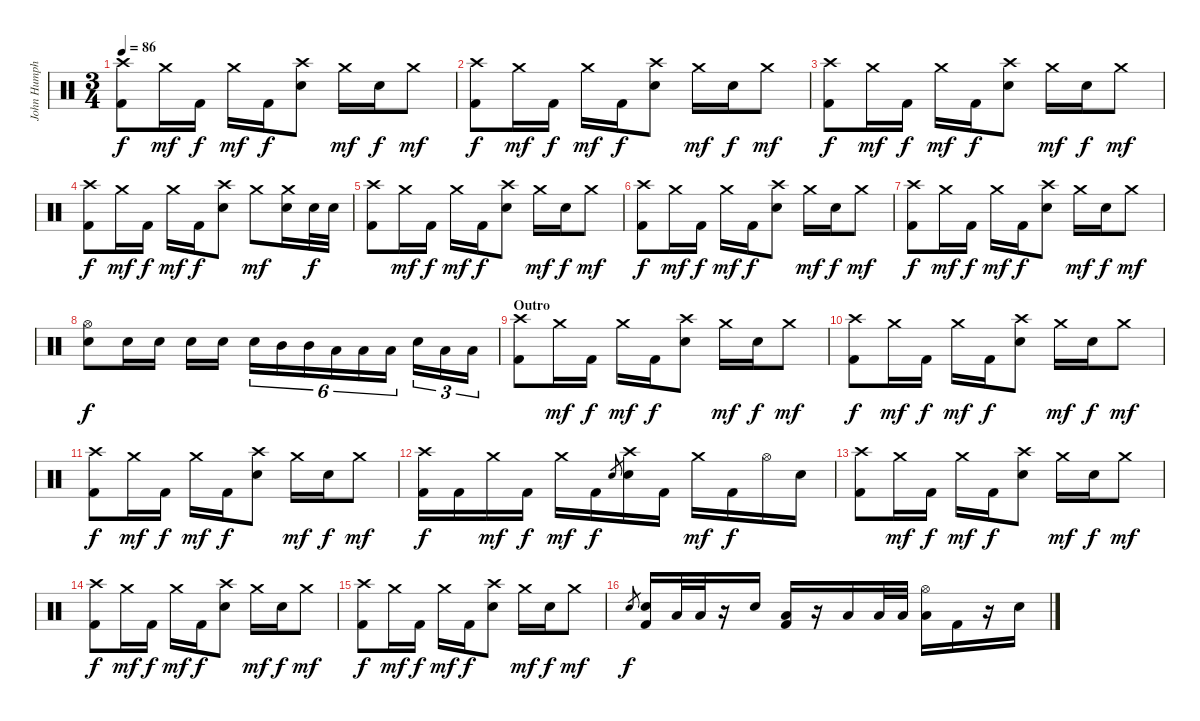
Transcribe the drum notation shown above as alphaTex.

\track ("John Humphrey" "John Humph") {instrument percussion}
\staff {score}
\articulation defaults
\ts (3 4)
\tempo 86
\clef neutral
\ks c
("Crash high (hit)" "Kick (hit) 2").8{dy f} "Crash medium (hit)".16{dy mf} "Kick (hit) 2".16{dy f} "Crash medium (hit)".16{dy mf} "Kick (hit) 2".16{dy f} ("Crash high (hit)" "Snare (hit) 2").8 "Crash medium (hit)".16{dy mf} "Snare (hit) 2".16{dy f} "Crash medium (hit)".8{dy mf} |
("Crash high (hit)" "Kick (hit) 2").8{dy f} "Crash medium (hit)".16{dy mf} "Kick (hit) 2".16{dy f} "Crash medium (hit)".16{dy mf} "Kick (hit) 2".16{dy f} ("Crash high (hit)" "Snare (hit) 2").8 "Crash medium (hit)".16{dy mf} "Snare (hit) 2".16{dy f} "Crash medium (hit)".8{dy mf} |
("Crash high (hit)" "Kick (hit) 2").8{dy f} "Crash medium (hit)".16{dy mf} "Kick (hit) 2".16{dy f} "Crash medium (hit)".16{dy mf} "Kick (hit) 2".16{dy f} ("Crash high (hit)" "Snare (hit) 2").8 "Crash medium (hit)".16{dy mf} "Snare (hit) 2".16{dy f} "Crash medium (hit)".8{dy mf} |
("Crash high (hit)" "Kick (hit) 2").8{dy f} "Crash medium (hit)".16{dy mf} "Kick (hit) 2".16{dy f} "Crash medium (hit)".16{dy mf} "Kick (hit) 2".16{dy f} ("Crash high (hit)" "Snare (hit) 2").8 "Crash medium (hit)".8{dy mf} ("Crash medium (hit)" "Snare (hit) 2").16 "Snare (hit) 2".32{dy f} "Snare (hit) 2".32 |
("Crash high (hit)" "Kick (hit) 2").8 "Crash medium (hit)".16{dy mf} "Kick (hit) 2".16{dy f} "Crash medium (hit)".16{dy mf} "Kick (hit) 2".16{dy f} ("Crash high (hit)" "Snare (hit) 2").8 "Crash medium (hit)".16{dy mf} "Snare (hit) 2".16{dy f} "Crash medium (hit)".8{dy mf} |
("Crash high (hit)" "Kick (hit) 2").8{dy f} "Crash medium (hit)".16{dy mf} "Kick (hit) 2".16{dy f} "Crash medium (hit)".16{dy mf} "Kick (hit) 2".16{dy f} ("Crash high (hit)" "Snare (hit) 2").8 "Crash medium (hit)".16{dy mf} "Snare (hit) 2".16{dy f} "Crash medium (hit)".8{dy mf} |
("Crash high (hit)" "Kick (hit) 2").8{dy f} "Crash medium (hit)".16{dy mf} "Kick (hit) 2".16{dy f} "Crash medium (hit)".16{dy mf} "Kick (hit) 2".16{dy f} ("Crash high (hit)" "Snare (hit) 2").8 "Crash medium (hit)".16{dy mf} "Snare (hit) 2".16{dy f} "Crash medium (hit)".8{dy mf} |
("Hi-Hat (open)" "Snare (hit) 2").8{dy f} "Snare (hit) 2".16 "Snare (hit) 2".16 "Snare (hit) 2".16 "Snare (hit) 2".16 "Snare (hit) 2".16{tu (6 4)} "Mid Tom (hit)".16{tu (6 4)} "Mid Tom (hit)".16{tu (6 4)} "Low Tom (hit)".16{tu (6 4)} "Low Tom (hit)".16{tu (6 4)} "Low Floor Tom (hit)".16{tu (6 4)} "Snare (hit) 2".16{tu (3 2)} "Low Tom (hit)".16{tu (3 2)} "Low Floor Tom (hit)".16{tu (3 2)} |
\section ("" "Outro")
("Crash high (hit)" "Kick (hit) 2").8 "Crash medium (hit)".16{dy mf} "Kick (hit) 2".16{dy f} "Crash medium (hit)".16{dy mf} "Kick (hit) 2".16{dy f} ("Crash high (hit)" "Snare (hit) 2").8 "Crash medium (hit)".16{dy mf} "Snare (hit) 2".16{dy f} "Crash medium (hit)".8{dy mf} |
("Crash high (hit)" "Kick (hit) 2").8{dy f} "Crash medium (hit)".16{dy mf} "Kick (hit) 2".16{dy f} "Crash medium (hit)".16{dy mf} "Kick (hit) 2".16{dy f} ("Crash high (hit)" "Snare (hit) 2").8 "Crash medium (hit)".16{dy mf} "Snare (hit) 2".16{dy f} "Crash medium (hit)".8{dy mf} |
("Crash high (hit)" "Kick (hit) 2").8{dy f} "Crash medium (hit)".16{dy mf} "Kick (hit) 2".16{dy f} "Crash medium (hit)".16{dy mf} "Kick (hit) 2".16{dy f} ("Crash high (hit)" "Snare (hit) 2").8 "Crash medium (hit)".16{dy mf} "Snare (hit) 2".16{dy f} "Crash medium (hit)".8{dy mf} |
("Crash high (hit)" "Kick (hit) 2").16{dy f} "Kick (hit) 2".16 "Crash medium (hit)".16{dy mf} "Kick (hit) 2".16{dy f} "Crash medium (hit)".16{dy mf} "Kick (hit) 2".16{dy f} "Snare (hit) 2".8{gr} ("Crash high (hit)" "Snare (hit) 2").16 "Kick (hit) 2".16 "Crash medium (hit)".16{dy mf} "Kick (hit) 2".16{dy f} "Hi-Hat (open)".16 "Snare (hit) 2".16 |
("Crash high (hit)" "Kick (hit) 2").8 "Crash medium (hit)".16{dy mf} "Kick (hit) 2".16{dy f} "Crash medium (hit)".16{dy mf} "Kick (hit) 2".16{dy f} ("Crash high (hit)" "Snare (hit) 2").8 "Crash medium (hit)".16{dy mf} "Snare (hit) 2".16{dy f} "Crash medium (hit)".8{dy mf} |
("Crash high (hit)" "Kick (hit) 2").8{dy f} "Crash medium (hit)".16{dy mf} "Kick (hit) 2".16{dy f} "Crash medium (hit)".16{dy mf} "Kick (hit) 2".16{dy f} ("Crash high (hit)" "Snare (hit) 2").8 "Crash medium (hit)".16{dy mf} "Snare (hit) 2".16{dy f} "Crash medium (hit)".8{dy mf} |
("Crash high (hit)" "Kick (hit) 2").8{dy f} "Crash medium (hit)".16{dy mf} "Kick (hit) 2".16{dy f} "Crash medium (hit)".16{dy mf} "Kick (hit) 2".16{dy f} ("Crash high (hit)" "Snare (hit) 2").8 "Crash medium (hit)".16{dy mf} "Snare (hit) 2".16{dy f} "Crash medium (hit)".8{dy mf} |
"Snare (hit) 2".8{gr dy f} ("Snare (hit) 2" "Kick (hit) 2").16 "Low Floor Tom (hit)".32 "Low Floor Tom (hit)".32 r.16 "Snare (hit) 2".16 ("Low Floor Tom (hit)" "Kick (hit) 2").16 r.16 "Low Floor Tom (hit)".16 "Low Floor Tom (hit)".32 "Low Floor Tom (hit)".32 ("Hi-Hat (open)" "Low Floor Tom (hit)").16 "Kick (hit) 2".16 r.16 "Snare (hit) 2".16
